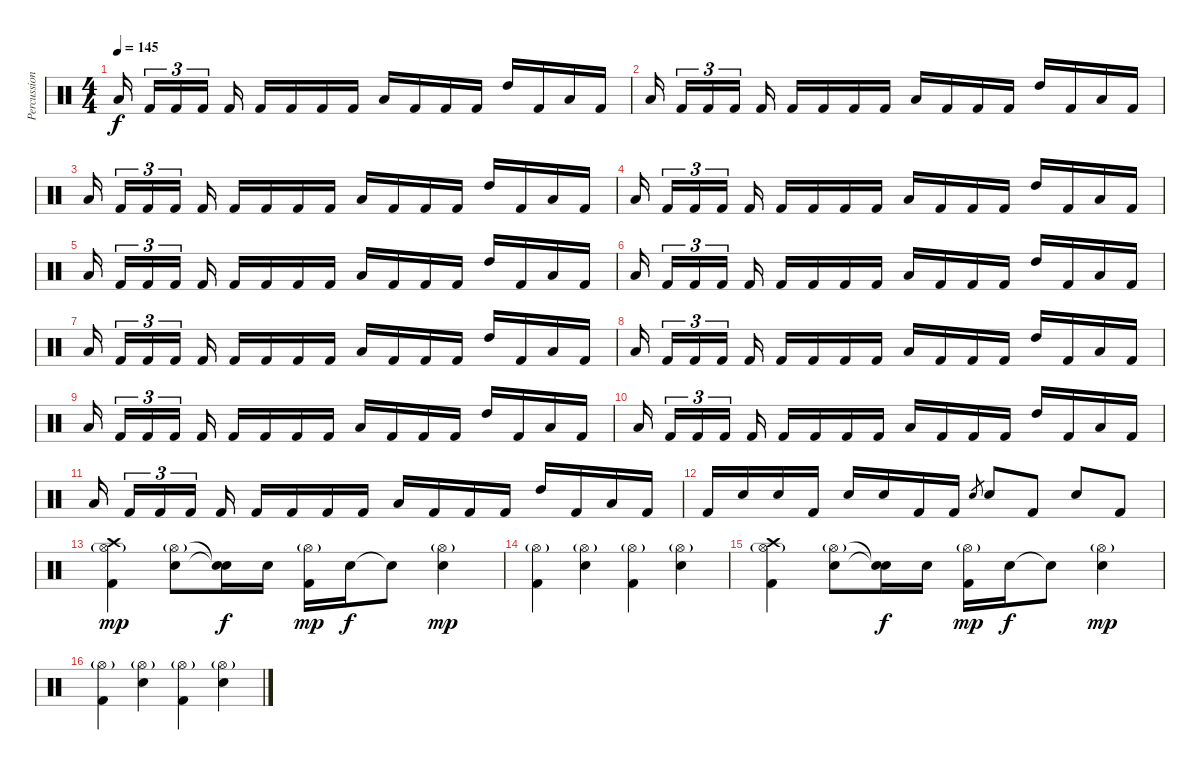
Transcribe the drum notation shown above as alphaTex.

\track ("Percussion" "Percussion") {instrument percussion}
\staff {score}
\articulation defaults
\ts (4 4)
\tempo 145
\clef neutral
\ks c "Low Tom (hit)".16{dy f} "Kick (hit) 2".16{tu (3 2)} "Kick (hit) 2".16{tu (3 2)} "Kick (hit) 2".16{tu (3 2)} "Kick (hit) 2".16 "Kick (hit) 2".16 "Kick (hit) 2".16 "Kick (hit) 2".16 "Kick (hit) 2".16 "Low Tom (hit)".16 "Kick (hit) 2".16 "Kick (hit) 2".16 "Kick (hit) 2".16 "High Tom (hit)".16 "Kick (hit) 2".16 "Low Tom (hit)".16 "Kick (hit) 2".16
|
"Low Tom (hit)".16 "Kick (hit) 2".16{tu (3 2)} "Kick (hit) 2".16{tu (3 2)} "Kick (hit) 2".16{tu (3 2)} "Kick (hit) 2".16 "Kick (hit) 2".16 "Kick (hit) 2".16 "Kick (hit) 2".16 "Kick (hit) 2".16 "Low Tom (hit)".16 "Kick (hit) 2".16 "Kick (hit) 2".16 "Kick (hit) 2".16 "High Tom (hit)".16 "Kick (hit) 2".16 "Low Tom (hit)".16 "Kick (hit) 2".16 |
"Low Tom (hit)".16 "Kick (hit) 2".16{tu (3 2)} "Kick (hit) 2".16{tu (3 2)} "Kick (hit) 2".16{tu (3 2)} "Kick (hit) 2".16 "Kick (hit) 2".16 "Kick (hit) 2".16 "Kick (hit) 2".16 "Kick (hit) 2".16 "Low Tom (hit)".16 "Kick (hit) 2".16 "Kick (hit) 2".16 "Kick (hit) 2".16 "High Tom (hit)".16 "Kick (hit) 2".16 "Low Tom (hit)".16 "Kick (hit) 2".16 |
"Low Tom (hit)".16 "Kick (hit) 2".16{tu (3 2)} "Kick (hit) 2".16{tu (3 2)} "Kick (hit) 2".16{tu (3 2)} "Kick (hit) 2".16 "Kick (hit) 2".16 "Kick (hit) 2".16 "Kick (hit) 2".16 "Kick (hit) 2".16 "Low Tom (hit)".16 "Kick (hit) 2".16 "Kick (hit) 2".16 "Kick (hit) 2".16 "High Tom (hit)".16 "Kick (hit) 2".16 "Low Tom (hit)".16 "Kick (hit) 2".16 |
"Low Tom (hit)".16 "Kick (hit) 2".16{tu (3 2)} "Kick (hit) 2".16{tu (3 2)} "Kick (hit) 2".16{tu (3 2)} "Kick (hit) 2".16 "Kick (hit) 2".16 "Kick (hit) 2".16 "Kick (hit) 2".16 "Kick (hit) 2".16 "Low Tom (hit)".16 "Kick (hit) 2".16 "Kick (hit) 2".16 "Kick (hit) 2".16 "High Tom (hit)".16 "Kick (hit) 2".16 "Low Tom (hit)".16 "Kick (hit) 2".16 |
"Low Tom (hit)".16 "Kick (hit) 2".16{tu (3 2)} "Kick (hit) 2".16{tu (3 2)} "Kick (hit) 2".16{tu (3 2)} "Kick (hit) 2".16 "Kick (hit) 2".16 "Kick (hit) 2".16 "Kick (hit) 2".16 "Kick (hit) 2".16 "Low Tom (hit)".16 "Kick (hit) 2".16 "Kick (hit) 2".16 "Kick (hit) 2".16 "High Tom (hit)".16 "Kick (hit) 2".16 "Low Tom (hit)".16 "Kick (hit) 2".16 |
"Low Tom (hit)".16 "Kick (hit) 2".16{tu (3 2)} "Kick (hit) 2".16{tu (3 2)} "Kick (hit) 2".16{tu (3 2)} "Kick (hit) 2".16 "Kick (hit) 2".16 "Kick (hit) 2".16 "Kick (hit) 2".16 "Kick (hit) 2".16 "Low Tom (hit)".16 "Kick (hit) 2".16 "Kick (hit) 2".16 "Kick (hit) 2".16 "High Tom (hit)".16 "Kick (hit) 2".16 "Low Tom (hit)".16 "Kick (hit) 2".16 |
"Low Tom (hit)".16 "Kick (hit) 2".16{tu (3 2)} "Kick (hit) 2".16{tu (3 2)} "Kick (hit) 2".16{tu (3 2)} "Kick (hit) 2".16 "Kick (hit) 2".16 "Kick (hit) 2".16 "Kick (hit) 2".16 "Kick (hit) 2".16 "Low Tom (hit)".16 "Kick (hit) 2".16 "Kick (hit) 2".16 "Kick (hit) 2".16 "High Tom (hit)".16 "Kick (hit) 2".16 "Low Tom (hit)".16 "Kick (hit) 2".16 |
"Low Tom (hit)".16 "Kick (hit) 2".16{tu (3 2)} "Kick (hit) 2".16{tu (3 2)} "Kick (hit) 2".16{tu (3 2)} "Kick (hit) 2".16 "Kick (hit) 2".16 "Kick (hit) 2".16 "Kick (hit) 2".16 "Kick (hit) 2".16 "Low Tom (hit)".16 "Kick (hit) 2".16 "Kick (hit) 2".16 "Kick (hit) 2".16 "High Tom (hit)".16 "Kick (hit) 2".16 "Low Tom (hit)".16 "Kick (hit) 2".16 |
"Low Tom (hit)".16 "Kick (hit) 2".16{tu (3 2)} "Kick (hit) 2".16{tu (3 2)} "Kick (hit) 2".16{tu (3 2)} "Kick (hit) 2".16 "Kick (hit) 2".16 "Kick (hit) 2".16 "Kick (hit) 2".16 "Kick (hit) 2".16 "Low Tom (hit)".16 "Kick (hit) 2".16 "Kick (hit) 2".16 "Kick (hit) 2".16 "High Tom (hit)".16 "Kick (hit) 2".16 "Low Tom (hit)".16 "Kick (hit) 2".16 |
"Low Tom (hit)".16 "Kick (hit) 2".16{tu (3 2)} "Kick (hit) 2".16{tu (3 2)} "Kick (hit) 2".16{tu (3 2)} "Kick (hit) 2".16 "Kick (hit) 2".16 "Kick (hit) 2".16 "Kick (hit) 2".16 "Kick (hit) 2".16 "Low Tom (hit)".16 "Kick (hit) 2".16 "Kick (hit) 2".16 "Kick (hit) 2".16 "High Tom (hit)".16 "Kick (hit) 2".16 "Low Tom (hit)".16 "Kick (hit) 2".16 |
"Kick (hit) 2".16 "Electric Snare (hit)".16 "Electric Snare (hit)".16 "Kick (hit) 2".16 "Electric Snare (hit)".16 "Electric Snare (hit)".16 "Kick (hit) 2".16 "Kick (hit) 2".16 "Electric Snare (hit)".8{gr} "Electric Snare (hit)".8 "Kick (hit) 2".8 "Electric Snare (hit)".8 "Kick (hit) 2".8 |
("Hi-Hat (open)"{g} "Crash high (hit)" "Kick (hit) 2").4{dy mp} ("Hi-Hat (open)"{g} "Electric Snare (hit)").8 ("Snare (hit)"{t} "Snare (hit)"{t}).16{dy f} "Electric Snare (hit)".16 ("Hi-Hat (open)"{g} "Kick (hit) 2").16{dy mp} "Electric Snare (hit)".16{dy f} "Snare (hit)"{t}.8 ("Hi-Hat (open)"{g} "Electric Snare (hit)").4{dy mp} |
("Hi-Hat (open)"{g} "Kick (hit) 2").4 ("Hi-Hat (open)"{g} "Electric Snare (hit)").4 ("Hi-Hat (open)"{g} "Kick (hit) 2").4 ("Hi-Hat (open)"{g} "Electric Snare (hit)").4 |
("Hi-Hat (open)"{g} "Crash high (hit)" "Kick (hit) 2").4 ("Hi-Hat (open)"{g} "Electric Snare (hit)").8 ("Snare (hit)"{t} "Snare (hit)"{t}).16{dy f} "Electric Snare (hit)".16 ("Hi-Hat (open)"{g} "Kick (hit) 2").16{dy mp} "Electric Snare (hit)".16{dy f} "Snare (hit)"{t}.8 ("Hi-Hat (open)"{g} "Electric Snare (hit)").4{dy mp} |
("Hi-Hat (open)"{g} "Kick (hit) 2").4 ("Hi-Hat (open)"{g} "Electric Snare (hit)").4 ("Hi-Hat (open)"{g} "Kick (hit) 2").4 ("Hi-Hat (open)"{g} "Electric Snare (hit)").4
